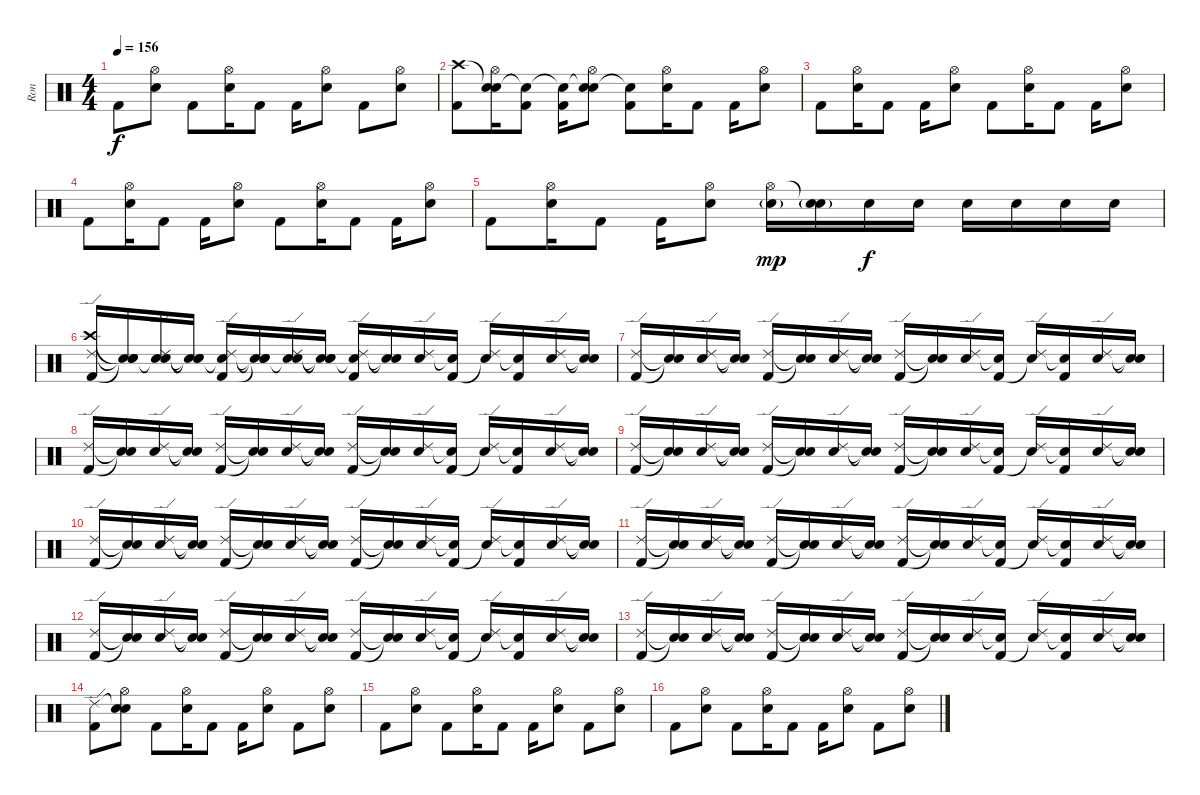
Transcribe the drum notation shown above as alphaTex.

\track ("Ron" "Ron") {instrument percussion}
\staff {score}
\articulation defaults
\ts (4 4)
\tempo 156
\clef neutral
\ks c "Kick (hit) 2".8{dy f}
("Hi-Hat (open)" "Electric Snare (hit)").8 "Kick (hit) 2".8 ("Hi-Hat (open)" "Electric Snare (hit)").16 "Kick (hit) 2".8 "Kick (hit) 2".16 ("Hi-Hat (open)" "Electric Snare (hit)").8 "Kick (hit) 2".8 ("Hi-Hat (open)" "Electric Snare (hit)").8 |
("Crash high (hit)" "Kick (hit) 2").8 ("Snare (hit)"{t} "Hi-Hat (open)" "Electric Snare (hit)").16 ("Snare (hit)"{t} "Kick (hit) 2").8 ("Snare (hit)"{t} "Kick (hit) 2").16 ("Snare (hit)"{t} "Hi-Hat (open)" "Electric Snare (hit)").8 ("Snare (hit)"{t} "Kick (hit) 2").8 ("Hi-Hat (open)" "Electric Snare (hit)").16 "Kick (hit) 2".8 "Kick (hit) 2".16 ("Hi-Hat (open)" "Electric Snare (hit)").8 |
"Kick (hit) 2".8 ("Hi-Hat (open)" "Electric Snare (hit)").16 "Kick (hit) 2".8 "Kick (hit) 2".16 ("Hi-Hat (open)" "Electric Snare (hit)").8 "Kick (hit) 2".8 ("Hi-Hat (open)" "Electric Snare (hit)").16 "Kick (hit) 2".8 "Kick (hit) 2".16 ("Hi-Hat (open)" "Electric Snare (hit)").8 |
"Kick (hit) 2".8 ("Hi-Hat (open)" "Electric Snare (hit)").16 "Kick (hit) 2".8 "Kick (hit) 2".16 ("Hi-Hat (open)" "Electric Snare (hit)").8 "Kick (hit) 2".8 ("Hi-Hat (open)" "Electric Snare (hit)").16 "Kick (hit) 2".8 "Kick (hit) 2".16 ("Hi-Hat (open)" "Electric Snare (hit)").8 |
"Kick (hit) 2".8 ("Hi-Hat (open)" "Electric Snare (hit)").16 "Kick (hit) 2".8 "Kick (hit) 2".16 ("Hi-Hat (open)" "Electric Snare (hit)").8 ("Hi-Hat (open)" "Electric Snare (hit)"{g}).16{dy mp} ("Snare (hit)"{t} "Electric Snare (hit)"{g}).16 "Electric Snare (hit)".16{dy f} "Electric Snare (hit)".16 "Electric Snare (hit)".16 "Electric Snare (hit)".16 "Electric Snare (hit)".16 "Electric Snare (hit)".16 |
("Crash high (hit)" "Ride (edge) 2" "Kick (hit) 2").16 ("Snare (hit)"{t} "Snare (hit)"{t} "Snare (hit)"{t}).16 ("Snare (hit)"{t} "Ride (edge) 2" "Electric Snare (hit)").16 ("Snare (hit)"{t} "Snare (hit)"{t} "Snare (hit)"{t}).16 ("Snare (hit)"{t} "Ride (edge) 2" "Kick (hit) 2").16 ("Snare (hit)"{t} "Snare (hit)"{t} "Snare (hit)"{t}).16 ("Snare (hit)"{t} "Ride (edge) 2" "Electric Snare (hit)").16 ("Snare (hit)"{t} "Snare (hit)"{t} "Snare (hit)"{t}).16 ("Snare (hit)"{t} "Ride (edge) 2" "Kick (hit) 2").16 ("Snare (hit)"{t} "Snare (hit)"{t}).16 ("Ride (edge) 2" "Electric Snare (hit)").16 ("Snare (hit)"{t} "Kick (hit) 2").16 ("Ride (edge) 2" "Snare (hit)"{t}).16 ("Snare (hit)"{t} "Kick (hit) 2").16 ("Ride (edge) 2" "Electric Snare (hit)").16 ("Snare (hit)"{t} "Snare (hit)"{t}).16 |
("Ride (edge) 2" "Kick (hit) 2").16 ("Snare (hit)"{t} "Snare (hit)"{t}).16 ("Ride (edge) 2" "Electric Snare (hit)").16 ("Snare (hit)"{t} "Snare (hit)"{t}).16 ("Ride (edge) 2" "Kick (hit) 2").16 ("Snare (hit)"{t} "Snare (hit)"{t}).16 ("Ride (edge) 2" "Electric Snare (hit)").16 ("Snare (hit)"{t} "Snare (hit)"{t}).16 ("Ride (edge) 2" "Kick (hit) 2").16 ("Snare (hit)"{t} "Snare (hit)"{t}).16 ("Ride (edge) 2" "Electric Snare (hit)").16 ("Snare (hit)"{t} "Kick (hit) 2").16 ("Ride (edge) 2" "Snare (hit)"{t}).16 ("Snare (hit)"{t} "Kick (hit) 2").16 ("Ride (edge) 2" "Electric Snare (hit)").16 ("Snare (hit)"{t} "Snare (hit)"{t}).16 |
("Ride (edge) 2" "Kick (hit) 2").16 ("Snare (hit)"{t} "Snare (hit)"{t}).16 ("Ride (edge) 2" "Electric Snare (hit)").16 ("Snare (hit)"{t} "Snare (hit)"{t}).16 ("Ride (edge) 2" "Kick (hit) 2").16 ("Snare (hit)"{t} "Snare (hit)"{t}).16 ("Ride (edge) 2" "Electric Snare (hit)").16 ("Snare (hit)"{t} "Snare (hit)"{t}).16 ("Ride (edge) 2" "Kick (hit) 2").16 ("Snare (hit)"{t} "Snare (hit)"{t}).16 ("Ride (edge) 2" "Electric Snare (hit)").16 ("Snare (hit)"{t} "Kick (hit) 2").16 ("Ride (edge) 2" "Snare (hit)"{t}).16 ("Snare (hit)"{t} "Kick (hit) 2").16 ("Ride (edge) 2" "Electric Snare (hit)").16 ("Snare (hit)"{t} "Snare (hit)"{t}).16 |
("Ride (edge) 2" "Kick (hit) 2").16 ("Snare (hit)"{t} "Snare (hit)"{t}).16 ("Ride (edge) 2" "Electric Snare (hit)").16 ("Snare (hit)"{t} "Snare (hit)"{t}).16 ("Ride (edge) 2" "Kick (hit) 2").16 ("Snare (hit)"{t} "Snare (hit)"{t}).16 ("Ride (edge) 2" "Electric Snare (hit)").16 ("Snare (hit)"{t} "Snare (hit)"{t}).16 ("Ride (edge) 2" "Kick (hit) 2").16 ("Snare (hit)"{t} "Snare (hit)"{t}).16 ("Ride (edge) 2" "Electric Snare (hit)").16 ("Snare (hit)"{t} "Kick (hit) 2").16 ("Ride (edge) 2" "Snare (hit)"{t}).16 ("Snare (hit)"{t} "Kick (hit) 2").16 ("Ride (edge) 2" "Electric Snare (hit)").16 ("Snare (hit)"{t} "Snare (hit)"{t}).16 |
("Ride (edge) 2" "Kick (hit) 2").16 ("Snare (hit)"{t} "Snare (hit)"{t}).16 ("Ride (edge) 2" "Electric Snare (hit)").16 ("Snare (hit)"{t} "Snare (hit)"{t}).16 ("Ride (edge) 2" "Kick (hit) 2").16 ("Snare (hit)"{t} "Snare (hit)"{t}).16 ("Ride (edge) 2" "Electric Snare (hit)").16 ("Snare (hit)"{t} "Snare (hit)"{t}).16 ("Ride (edge) 2" "Kick (hit) 2").16 ("Snare (hit)"{t} "Snare (hit)"{t}).16 ("Ride (edge) 2" "Electric Snare (hit)").16 ("Snare (hit)"{t} "Kick (hit) 2").16 ("Ride (edge) 2" "Snare (hit)"{t}).16 ("Snare (hit)"{t} "Kick (hit) 2").16 ("Ride (edge) 2" "Electric Snare (hit)").16 ("Snare (hit)"{t} "Snare (hit)"{t}).16 |
("Ride (edge) 2" "Kick (hit) 2").16 ("Snare (hit)"{t} "Snare (hit)"{t}).16 ("Ride (edge) 2" "Electric Snare (hit)").16 ("Snare (hit)"{t} "Snare (hit)"{t}).16 ("Ride (edge) 2" "Kick (hit) 2").16 ("Snare (hit)"{t} "Snare (hit)"{t}).16 ("Ride (edge) 2" "Electric Snare (hit)").16 ("Snare (hit)"{t} "Snare (hit)"{t}).16 ("Ride (edge) 2" "Kick (hit) 2").16 ("Snare (hit)"{t} "Snare (hit)"{t}).16 ("Ride (edge) 2" "Electric Snare (hit)").16 ("Snare (hit)"{t} "Kick (hit) 2").16 ("Ride (edge) 2" "Snare (hit)"{t}).16 ("Snare (hit)"{t} "Kick (hit) 2").16 ("Ride (edge) 2" "Electric Snare (hit)").16 ("Snare (hit)"{t} "Snare (hit)"{t}).16 |
("Ride (edge) 2" "Kick (hit) 2").16 ("Snare (hit)"{t} "Snare (hit)"{t}).16 ("Ride (edge) 2" "Electric Snare (hit)").16 ("Snare (hit)"{t} "Snare (hit)"{t}).16 ("Ride (edge) 2" "Kick (hit) 2").16 ("Snare (hit)"{t} "Snare (hit)"{t}).16 ("Ride (edge) 2" "Electric Snare (hit)").16 ("Snare (hit)"{t} "Snare (hit)"{t}).16 ("Ride (edge) 2" "Kick (hit) 2").16 ("Snare (hit)"{t} "Snare (hit)"{t}).16 ("Ride (edge) 2" "Electric Snare (hit)").16 ("Snare (hit)"{t} "Kick (hit) 2").16 ("Ride (edge) 2" "Snare (hit)"{t}).16 ("Snare (hit)"{t} "Kick (hit) 2").16 ("Ride (edge) 2" "Electric Snare (hit)").16 ("Snare (hit)"{t} "Snare (hit)"{t}).16 |
("Ride (edge) 2" "Kick (hit) 2").16 ("Snare (hit)"{t} "Snare (hit)"{t}).16 ("Ride (edge) 2" "Electric Snare (hit)").16 ("Snare (hit)"{t} "Snare (hit)"{t}).16 ("Ride (edge) 2" "Kick (hit) 2").16 ("Snare (hit)"{t} "Snare (hit)"{t}).16 ("Ride (edge) 2" "Electric Snare (hit)").16 ("Snare (hit)"{t} "Snare (hit)"{t}).16 ("Ride (edge) 2" "Kick (hit) 2").16 ("Snare (hit)"{t} "Snare (hit)"{t}).16 ("Ride (edge) 2" "Electric Snare (hit)").16 ("Snare (hit)"{t} "Kick (hit) 2").16 ("Ride (edge) 2" "Snare (hit)"{t}).16 ("Snare (hit)"{t} "Kick (hit) 2").16 ("Ride (edge) 2" "Electric Snare (hit)").16 ("Snare (hit)"{t} "Snare (hit)"{t}).16 |
("Ride (edge) 2" "Kick (hit) 2").8 ("Snare (hit)"{t} "Hi-Hat (open)" "Electric Snare (hit)").8 "Kick (hit) 2".8 ("Hi-Hat (open)" "Electric Snare (hit)").16 "Kick (hit) 2".8 "Kick (hit) 2".16 ("Hi-Hat (open)" "Electric Snare (hit)").8 "Kick (hit) 2".8 ("Hi-Hat (open)" "Electric Snare (hit)").8 |
"Kick (hit) 2".8 ("Hi-Hat (open)" "Electric Snare (hit)").8 "Kick (hit) 2".8 ("Hi-Hat (open)" "Electric Snare (hit)").16 "Kick (hit) 2".8 "Kick (hit) 2".16 ("Hi-Hat (open)" "Electric Snare (hit)").8 "Kick (hit) 2".8 ("Hi-Hat (open)" "Electric Snare (hit)").8 |
"Kick (hit) 2".8 ("Hi-Hat (open)" "Electric Snare (hit)").8 "Kick (hit) 2".8 ("Hi-Hat (open)" "Electric Snare (hit)").16 "Kick (hit) 2".8 "Kick (hit) 2".16 ("Hi-Hat (open)" "Electric Snare (hit)").8 "Kick (hit) 2".8 ("Hi-Hat (open)" "Electric Snare (hit)").8
